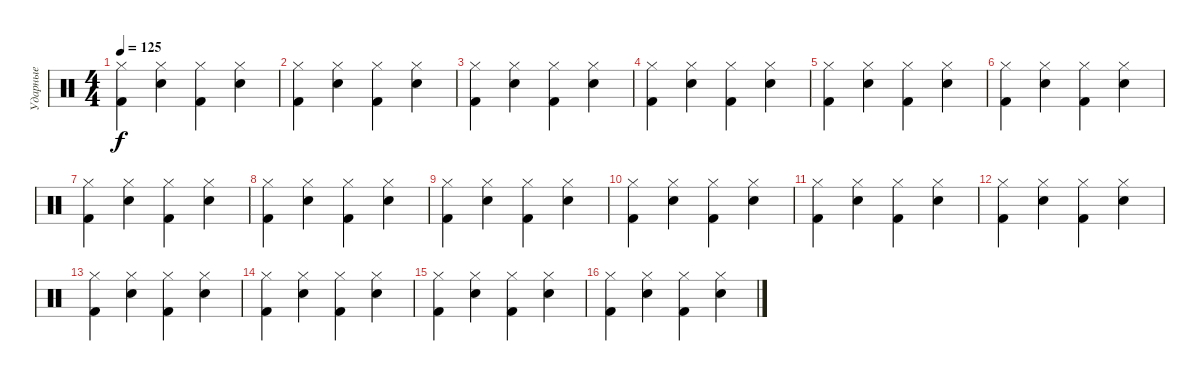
\track ("Ударные" "Ударные") {instrument percussion}
\staff {score}
\articulation defaults
\ts (4 4)
\tempo 125
\clef neutral
\ks c
("Hi-Hat (closed)" "Kick (hit) 2").4{dy f} ("Hi-Hat (closed)" "Snare (hit) 2").4 ("Hi-Hat (closed)" "Kick (hit) 2").4 ("Hi-Hat (closed)" "Snare (hit) 2").4 |
("Hi-Hat (closed)" "Kick (hit) 2").4 ("Hi-Hat (closed)" "Snare (hit) 2").4 ("Hi-Hat (closed)" "Kick (hit) 2").4 ("Hi-Hat (closed)" "Snare (hit) 2").4 |
("Hi-Hat (closed)" "Kick (hit) 2").4 ("Hi-Hat (closed)" "Snare (hit) 2").4 ("Hi-Hat (closed)" "Kick (hit) 2").4 ("Hi-Hat (closed)" "Snare (hit) 2").4 |
("Hi-Hat (closed)" "Kick (hit) 2").4 ("Hi-Hat (closed)" "Snare (hit) 2").4 ("Hi-Hat (closed)" "Kick (hit) 2").4 ("Hi-Hat (closed)" "Snare (hit) 2").4 |
("Hi-Hat (closed)" "Kick (hit) 2").4 ("Hi-Hat (closed)" "Snare (hit) 2").4 ("Hi-Hat (closed)" "Kick (hit) 2").4 ("Hi-Hat (closed)" "Snare (hit) 2").4 |
("Hi-Hat (closed)" "Kick (hit) 2").4 ("Hi-Hat (closed)" "Snare (hit) 2").4 ("Hi-Hat (closed)" "Kick (hit) 2").4 ("Hi-Hat (closed)" "Snare (hit) 2").4 |
("Hi-Hat (closed)" "Kick (hit) 2").4 ("Hi-Hat (closed)" "Snare (hit) 2").4 ("Hi-Hat (closed)" "Kick (hit) 2").4 ("Hi-Hat (closed)" "Snare (hit) 2").4 |
("Hi-Hat (closed)" "Kick (hit) 2").4 ("Hi-Hat (closed)" "Snare (hit) 2").4 ("Hi-Hat (closed)" "Kick (hit) 2").4 ("Hi-Hat (closed)" "Snare (hit) 2").4 |
("Hi-Hat (closed)" "Kick (hit) 2").4 ("Hi-Hat (closed)" "Snare (hit) 2").4 ("Hi-Hat (closed)" "Kick (hit) 2").4 ("Hi-Hat (closed)" "Snare (hit) 2").4 |
("Hi-Hat (closed)" "Kick (hit) 2").4 ("Hi-Hat (closed)" "Snare (hit) 2").4 ("Hi-Hat (closed)" "Kick (hit) 2").4 ("Hi-Hat (closed)" "Snare (hit) 2").4 |
("Hi-Hat (closed)" "Kick (hit) 2").4 ("Hi-Hat (closed)" "Snare (hit) 2").4 ("Hi-Hat (closed)" "Kick (hit) 2").4 ("Hi-Hat (closed)" "Snare (hit) 2").4 |
("Hi-Hat (closed)" "Kick (hit) 2").4 ("Hi-Hat (closed)" "Snare (hit) 2").4 ("Hi-Hat (closed)" "Kick (hit) 2").4 ("Hi-Hat (closed)" "Snare (hit) 2").4 |
("Hi-Hat (closed)" "Kick (hit) 2").4 ("Hi-Hat (closed)" "Snare (hit) 2").4 ("Hi-Hat (closed)" "Kick (hit) 2").4 ("Hi-Hat (closed)" "Snare (hit) 2").4 |
("Hi-Hat (closed)" "Kick (hit) 2").4 ("Hi-Hat (closed)" "Snare (hit) 2").4 ("Hi-Hat (closed)" "Kick (hit) 2").4 ("Hi-Hat (closed)" "Snare (hit) 2").4 |
("Hi-Hat (closed)" "Kick (hit) 2").4 ("Hi-Hat (closed)" "Snare (hit) 2").4 ("Hi-Hat (closed)" "Kick (hit) 2").4 ("Hi-Hat (closed)" "Snare (hit) 2").4 |
("Hi-Hat (closed)" "Kick (hit) 2").4 ("Hi-Hat (closed)" "Snare (hit) 2").4 ("Hi-Hat (closed)" "Kick (hit) 2").4 ("Hi-Hat (closed)" "Snare (hit) 2").4
